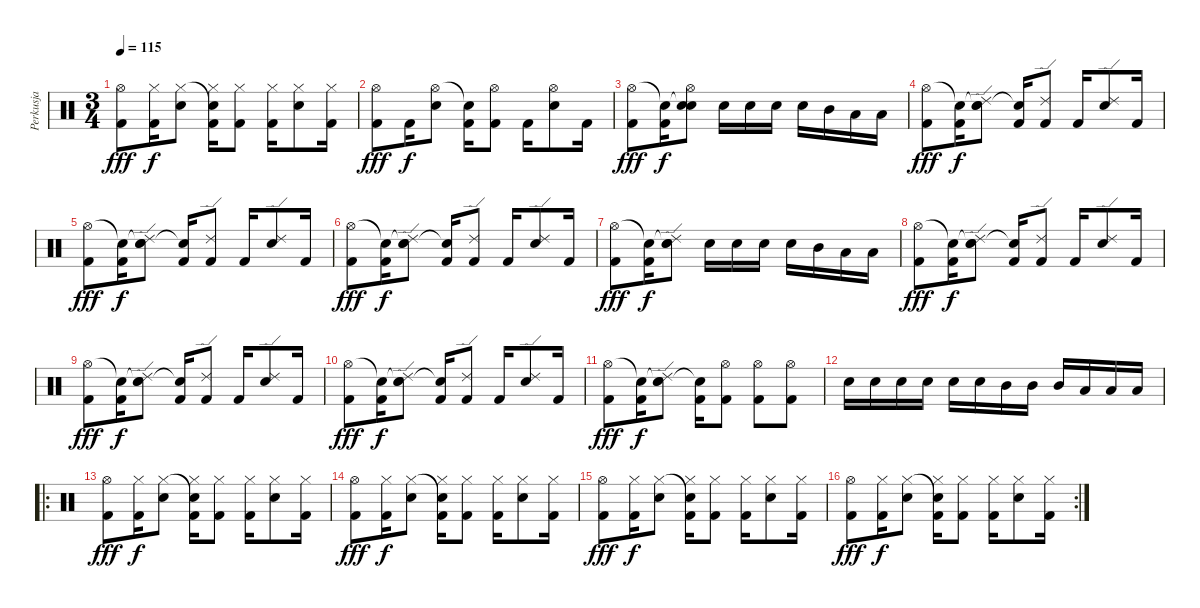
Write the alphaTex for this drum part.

\track ("Perkusja" "Perkusja") {instrument percussion}
\staff {score}
\articulation defaults
\ts (3 4)
\tempo 115
\clef neutral
\ks c
("Hi-Hat (open)" "Kick (hit) 2").8{dy fff} ("Hi-Hat (closed)" "Kick (hit) 2").16{dy f} ("Hi-Hat (closed)" "Snare (hit) 2").8 ("Snare (hit)"{t} "Hi-Hat (closed)" "Kick (hit) 2").16 ("Hi-Hat (closed)" "Kick (hit) 2").8 ("Hi-Hat (closed)" "Kick (hit) 2").16 ("Hi-Hat (closed)" "Snare (hit) 2").8 ("Hi-Hat (closed)" "Kick (hit) 2").16 |
("Hi-Hat (open)" "Kick (hit) 2").8{dy fff} "Kick (hit) 2".16{dy f} ("Hi-Hat (open)" "Snare (hit) 2").8 ("Snare (hit)"{t} "Kick (hit) 2").16 ("Hi-Hat (open)" "Kick (hit) 2").8 "Kick (hit) 2".16 ("Hi-Hat (open)" "Snare (hit) 2").8 "Kick (hit) 2".16 |
("Hi-Hat (open)" "Kick (hit) 2").8{dy fff} ("Snare (hit)"{t} "Kick (hit) 2").16{dy f} ("Snare (hit)"{t} "Hi-Hat (open)" "Snare (hit) 2").8 "Snare (hit) 2".16 "Snare (hit) 2".16 "Snare (hit) 2".16 "Snare (hit) 2".16 "Mid Tom (hit)".16 "Low Tom (hit)".16 "Low Tom (hit)".16 |
("Hi-Hat (open)" "Kick (hit) 2").8{dy fff} ("Snare (hit)"{t} "Kick (hit) 2").16{dy f} ("Snare (hit)"{t} "Ride (edge) 2" "Snare (hit) 2").8 ("Snare (hit)"{t} "Kick (hit) 2").16 ("Ride (edge) 2" "Kick (hit) 2").8 "Kick (hit) 2".16 ("Ride (edge) 2" "Snare (hit) 2").8 "Kick (hit) 2".16 |
("Hi-Hat (open)" "Kick (hit) 2").8{dy fff} ("Snare (hit)"{t} "Kick (hit) 2").16{dy f} ("Snare (hit)"{t} "Ride (edge) 2" "Snare (hit) 2").8 ("Snare (hit)"{t} "Kick (hit) 2").16 ("Ride (edge) 2" "Kick (hit) 2").8 "Kick (hit) 2".16 ("Ride (edge) 2" "Snare (hit) 2").8 "Kick (hit) 2".16 |
("Hi-Hat (open)" "Kick (hit) 2").8{dy fff} ("Snare (hit)"{t} "Kick (hit) 2").16{dy f} ("Snare (hit)"{t} "Ride (edge) 2" "Snare (hit) 2").8 ("Snare (hit)"{t} "Kick (hit) 2").16 ("Ride (edge) 2" "Kick (hit) 2").8 "Kick (hit) 2".16 ("Ride (edge) 2" "Snare (hit) 2").8 "Kick (hit) 2".16 |
("Hi-Hat (open)" "Kick (hit) 2").8{dy fff} ("Snare (hit)"{t} "Kick (hit) 2").16{dy f} ("Snare (hit)"{t} "Ride (edge) 2" "Snare (hit) 2").8 "Snare (hit) 2".16 "Snare (hit) 2".16 "Snare (hit) 2".16 "Snare (hit) 2".16 "Mid Tom (hit)".16 "Low Tom (hit)".16 "Low Tom (hit)".16 |
("Hi-Hat (open)" "Kick (hit) 2").8{dy fff} ("Snare (hit)"{t} "Kick (hit) 2").16{dy f} ("Snare (hit)"{t} "Ride (edge) 2" "Snare (hit) 2").8 ("Snare (hit)"{t} "Kick (hit) 2").16 ("Ride (edge) 2" "Kick (hit) 2").8 "Kick (hit) 2".16 ("Ride (edge) 2" "Snare (hit) 2").8 "Kick (hit) 2".16 |
("Hi-Hat (open)" "Kick (hit) 2").8{dy fff} ("Snare (hit)"{t} "Kick (hit) 2").16{dy f} ("Snare (hit)"{t} "Ride (edge) 2" "Snare (hit) 2").8 ("Snare (hit)"{t} "Kick (hit) 2").16 ("Ride (edge) 2" "Kick (hit) 2").8 "Kick (hit) 2".16 ("Ride (edge) 2" "Snare (hit) 2").8 "Kick (hit) 2".16 |
("Hi-Hat (open)" "Kick (hit) 2").8{dy fff} ("Snare (hit)"{t} "Kick (hit) 2").16{dy f} ("Snare (hit)"{t} "Ride (edge) 2" "Snare (hit) 2").8 ("Snare (hit)"{t} "Kick (hit) 2").16 ("Ride (edge) 2" "Kick (hit) 2").8 "Kick (hit) 2".16 ("Ride (edge) 2" "Snare (hit) 2").8 "Kick (hit) 2".16 |
("Hi-Hat (open)" "Kick (hit) 2").8{dy fff} ("Snare (hit)"{t} "Kick (hit) 2").16{dy f} ("Snare (hit)"{t} "Ride (edge) 2" "Snare (hit) 2").8 ("Snare (hit)"{t} "Kick (hit) 2").16 ("Hi-Hat (open)" "Kick (hit) 2").8 ("Hi-Hat (open)" "Kick (hit) 2").8 ("Hi-Hat (open)" "Kick (hit) 2").8 |
"Snare (hit) 2".16 "Snare (hit) 2".16 "Snare (hit) 2".16 "Snare (hit) 2".16 "Snare (hit) 2".16 "Snare (hit) 2".16 "Mid Tom (hit)".16 "Mid Tom (hit)".16 "Mid Tom (hit)".16 "Low Tom (hit)".16 "Low Tom (hit)".16 "Low Tom (hit)".16 |
\ro
("Hi-Hat (open)" "Kick (hit) 2").8{dy fff} ("Hi-Hat (closed)" "Kick (hit) 2").16{dy f} ("Hi-Hat (closed)" "Snare (hit) 2").8 ("Snare (hit)"{t} "Hi-Hat (closed)" "Kick (hit) 2").16 ("Hi-Hat (closed)" "Kick (hit) 2").8 ("Hi-Hat (closed)" "Kick (hit) 2").16 ("Hi-Hat (closed)" "Snare (hit) 2").8 ("Hi-Hat (closed)" "Kick (hit) 2").16 |
("Hi-Hat (open)" "Kick (hit) 2").8{dy fff} ("Hi-Hat (closed)" "Kick (hit) 2").16{dy f} ("Hi-Hat (closed)" "Snare (hit) 2").8 ("Snare (hit)"{t} "Hi-Hat (closed)" "Kick (hit) 2").16 ("Hi-Hat (closed)" "Kick (hit) 2").8 ("Hi-Hat (closed)" "Kick (hit) 2").16 ("Hi-Hat (closed)" "Snare (hit) 2").8 ("Hi-Hat (closed)" "Kick (hit) 2").16 |
("Hi-Hat (open)" "Kick (hit) 2").8{dy fff} ("Hi-Hat (closed)" "Kick (hit) 2").16{dy f} ("Hi-Hat (closed)" "Snare (hit) 2").8 ("Snare (hit)"{t} "Hi-Hat (closed)" "Kick (hit) 2").16 ("Hi-Hat (closed)" "Kick (hit) 2").8 ("Hi-Hat (closed)" "Kick (hit) 2").16 ("Hi-Hat (closed)" "Snare (hit) 2").8 ("Hi-Hat (closed)" "Kick (hit) 2").16 |
\rc 2
("Hi-Hat (open)" "Kick (hit) 2").8{dy fff} ("Hi-Hat (closed)" "Kick (hit) 2").16{dy f} ("Hi-Hat (closed)" "Snare (hit) 2").8 ("Snare (hit)"{t} "Hi-Hat (closed)" "Kick (hit) 2").16 ("Hi-Hat (closed)" "Kick (hit) 2").8 ("Hi-Hat (closed)" "Kick (hit) 2").16 ("Hi-Hat (closed)" "Snare (hit) 2").8 ("Hi-Hat (closed)" "Kick (hit) 2").16
